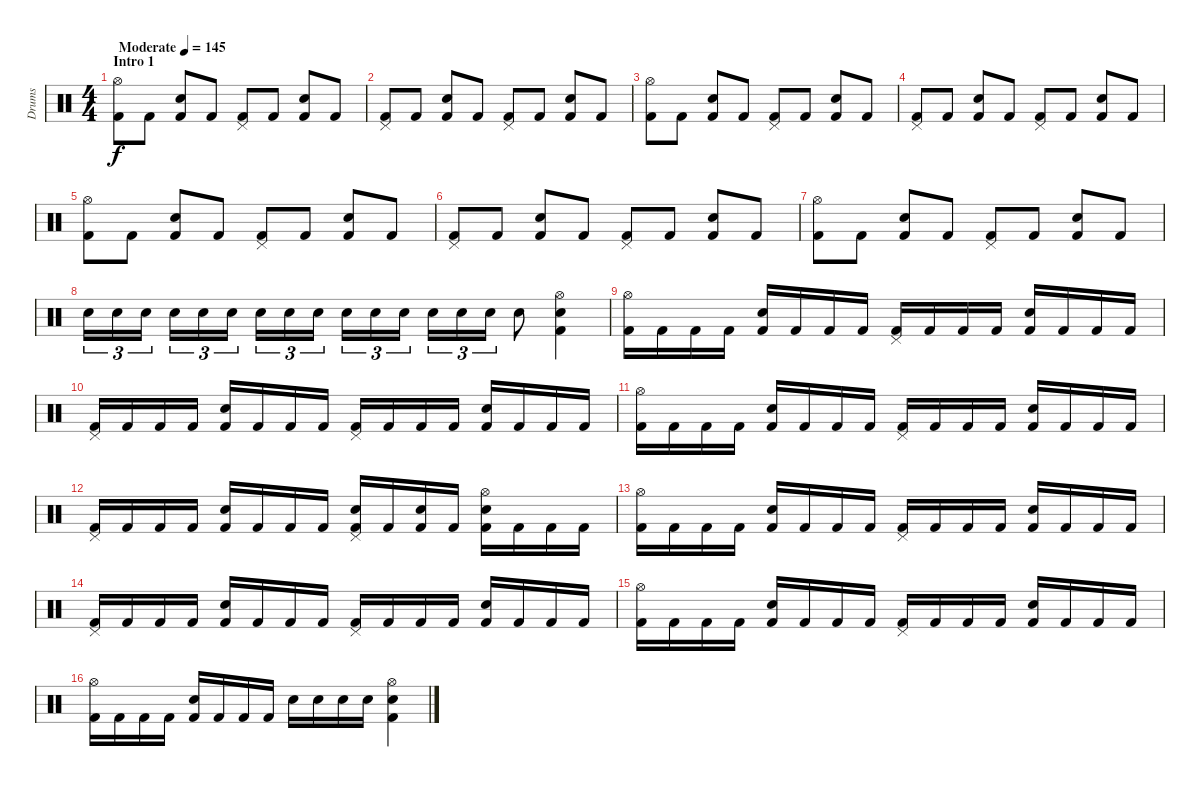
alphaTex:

\track ("Drums" "Drums") {instrument percussion}
\staff {score}
\articulation defaults
\ts (4 4)
\section ("" "Intro 1")
\tempo (145 "Moderate")
\clef neutral
\ks c
("Hi-Hat (open)" "Kick (hit) 2").8{dy f} "Kick (hit) 2".8 ("Snare (hit) 2" "Kick (hit) 2").8 "Kick (hit) 2".8 ("Pedal Hi-Hat (hit)" "Kick (hit) 2").8 "Kick (hit) 2".8 ("Snare (hit) 2" "Kick (hit) 2").8 "Kick (hit) 2".8 |
("Pedal Hi-Hat (hit)" "Kick (hit) 2").8 "Kick (hit) 2".8 ("Snare (hit) 2" "Kick (hit) 2").8 "Kick (hit) 2".8 ("Pedal Hi-Hat (hit)" "Kick (hit) 2").8 "Kick (hit) 2".8 ("Snare (hit) 2" "Kick (hit) 2").8 "Kick (hit) 2".8 |
("Hi-Hat (open)" "Kick (hit) 2").8 "Kick (hit) 2".8 ("Snare (hit) 2" "Kick (hit) 2").8 "Kick (hit) 2".8 ("Pedal Hi-Hat (hit)" "Kick (hit) 2").8 "Kick (hit) 2".8 ("Snare (hit) 2" "Kick (hit) 2").8 "Kick (hit) 2".8 |
("Pedal Hi-Hat (hit)" "Kick (hit) 2").8 "Kick (hit) 2".8 ("Snare (hit) 2" "Kick (hit) 2").8 "Kick (hit) 2".8 ("Pedal Hi-Hat (hit)" "Kick (hit) 2").8 "Kick (hit) 2".8 ("Snare (hit) 2" "Kick (hit) 2").8 "Kick (hit) 2".8 |
("Hi-Hat (open)" "Kick (hit) 2").8 "Kick (hit) 2".8 ("Snare (hit) 2" "Kick (hit) 2").8 "Kick (hit) 2".8 ("Pedal Hi-Hat (hit)" "Kick (hit) 2").8 "Kick (hit) 2".8 ("Snare (hit) 2" "Kick (hit) 2").8 "Kick (hit) 2".8 |
("Pedal Hi-Hat (hit)" "Kick (hit) 2").8 "Kick (hit) 2".8 ("Snare (hit) 2" "Kick (hit) 2").8 "Kick (hit) 2".8 ("Pedal Hi-Hat (hit)" "Kick (hit) 2").8 "Kick (hit) 2".8 ("Snare (hit) 2" "Kick (hit) 2").8 "Kick (hit) 2".8 |
("Hi-Hat (open)" "Kick (hit) 2").8 "Kick (hit) 2".8 ("Snare (hit) 2" "Kick (hit) 2").8 "Kick (hit) 2".8 ("Pedal Hi-Hat (hit)" "Kick (hit) 2").8 "Kick (hit) 2".8 ("Snare (hit) 2" "Kick (hit) 2").8 "Kick (hit) 2".8 |
"Snare (hit) 2".16{tu (3 2)} "Snare (hit) 2".16{tu (3 2)} "Snare (hit) 2".16{tu (3 2) beam splitsecondary} "Snare (hit) 2".16{tu (3 2)} "Snare (hit) 2".16{tu (3 2)} "Snare (hit) 2".16{tu (3 2)} "Snare (hit) 2".16{tu (3 2)} "Snare (hit) 2".16{tu (3 2)} "Snare (hit) 2".16{tu (3 2) beam splitsecondary} "Snare (hit) 2".16{tu (3 2)} "Snare (hit) 2".16{tu (3 2)} "Snare (hit) 2".16{tu (3 2)} "Snare (hit) 2".16{tu (3 2)} "Snare (hit) 2".16{tu (3 2)} "Snare (hit) 2".16{tu (3 2)} "Snare (hit) 2".8 ("Hi-Hat (open)" "Snare (hit) 2" "Kick (hit) 2").4 |
("Hi-Hat (open)" "Kick (hit) 2").16 "Kick (hit) 2".16 "Kick (hit) 2".16 "Kick (hit) 2".16 ("Snare (hit) 2" "Kick (hit) 2").16 "Kick (hit) 2".16 "Kick (hit) 2".16 "Kick (hit) 2".16 ("Pedal Hi-Hat (hit)" "Kick (hit) 2").16 "Kick (hit) 2".16 "Kick (hit) 2".16 "Kick (hit) 2".16 ("Snare (hit) 2" "Kick (hit) 2").16 "Kick (hit) 2".16 "Kick (hit) 2".16 "Kick (hit) 2".16 |
("Pedal Hi-Hat (hit)" "Kick (hit) 2").16 "Kick (hit) 2".16 "Kick (hit) 2".16 "Kick (hit) 2".16 ("Snare (hit) 2" "Kick (hit) 2").16 "Kick (hit) 2".16 "Kick (hit) 2".16 "Kick (hit) 2".16 ("Pedal Hi-Hat (hit)" "Kick (hit) 2").16 "Kick (hit) 2".16 "Kick (hit) 2".16 "Kick (hit) 2".16 ("Snare (hit) 2" "Kick (hit) 2").16 "Kick (hit) 2".16 "Kick (hit) 2".16 "Kick (hit) 2".16 |
("Hi-Hat (open)" "Kick (hit) 2").16 "Kick (hit) 2".16 "Kick (hit) 2".16 "Kick (hit) 2".16 ("Snare (hit) 2" "Kick (hit) 2").16 "Kick (hit) 2".16 "Kick (hit) 2".16 "Kick (hit) 2".16 ("Pedal Hi-Hat (hit)" "Kick (hit) 2").16 "Kick (hit) 2".16 "Kick (hit) 2".16 "Kick (hit) 2".16 ("Snare (hit) 2" "Kick (hit) 2").16 "Kick (hit) 2".16 "Kick (hit) 2".16 "Kick (hit) 2".16 |
("Pedal Hi-Hat (hit)" "Kick (hit) 2").16 "Kick (hit) 2".16 "Kick (hit) 2".16 "Kick (hit) 2".16 ("Snare (hit) 2" "Kick (hit) 2").16 "Kick (hit) 2".16 "Kick (hit) 2".16 "Kick (hit) 2".16 ("Pedal Hi-Hat (hit)" "Snare (hit) 2" "Kick (hit) 2").16 "Kick (hit) 2".16 ("Snare (hit) 2" "Kick (hit) 2").16 "Kick (hit) 2".16 ("Hi-Hat (open)" "Snare (hit) 2" "Kick (hit) 2").16 "Kick (hit) 2".16 "Kick (hit) 2".16 "Kick (hit) 2".16 |
("Hi-Hat (open)" "Kick (hit) 2").16 "Kick (hit) 2".16 "Kick (hit) 2".16 "Kick (hit) 2".16 ("Snare (hit) 2" "Kick (hit) 2").16 "Kick (hit) 2".16 "Kick (hit) 2".16 "Kick (hit) 2".16 ("Pedal Hi-Hat (hit)" "Kick (hit) 2").16 "Kick (hit) 2".16 "Kick (hit) 2".16 "Kick (hit) 2".16 ("Snare (hit) 2" "Kick (hit) 2").16 "Kick (hit) 2".16 "Kick (hit) 2".16 "Kick (hit) 2".16 |
("Pedal Hi-Hat (hit)" "Kick (hit) 2").16 "Kick (hit) 2".16 "Kick (hit) 2".16 "Kick (hit) 2".16 ("Snare (hit) 2" "Kick (hit) 2").16 "Kick (hit) 2".16 "Kick (hit) 2".16 "Kick (hit) 2".16 ("Pedal Hi-Hat (hit)" "Kick (hit) 2").16 "Kick (hit) 2".16 "Kick (hit) 2".16 "Kick (hit) 2".16 ("Snare (hit) 2" "Kick (hit) 2").16 "Kick (hit) 2".16 "Kick (hit) 2".16 "Kick (hit) 2".16 |
("Hi-Hat (open)" "Kick (hit) 2").16 "Kick (hit) 2".16 "Kick (hit) 2".16 "Kick (hit) 2".16 ("Snare (hit) 2" "Kick (hit) 2").16 "Kick (hit) 2".16 "Kick (hit) 2".16 "Kick (hit) 2".16 ("Pedal Hi-Hat (hit)" "Kick (hit) 2").16 "Kick (hit) 2".16 "Kick (hit) 2".16 "Kick (hit) 2".16 ("Snare (hit) 2" "Kick (hit) 2").16 "Kick (hit) 2".16 "Kick (hit) 2".16 "Kick (hit) 2".16 |
("Hi-Hat (open)" "Kick (hit) 2").16 "Kick (hit) 2".16 "Kick (hit) 2".16 "Kick (hit) 2".16 ("Snare (hit) 2" "Kick (hit) 2").16 "Kick (hit) 2".16 "Kick (hit) 2".16 "Kick (hit) 2".16 "Snare (hit) 2".16 "Snare (hit) 2".16 "Snare (hit) 2".16 "Snare (hit) 2".16 ("Hi-Hat (open)" "Snare (hit) 2" "Kick (hit) 2").4
